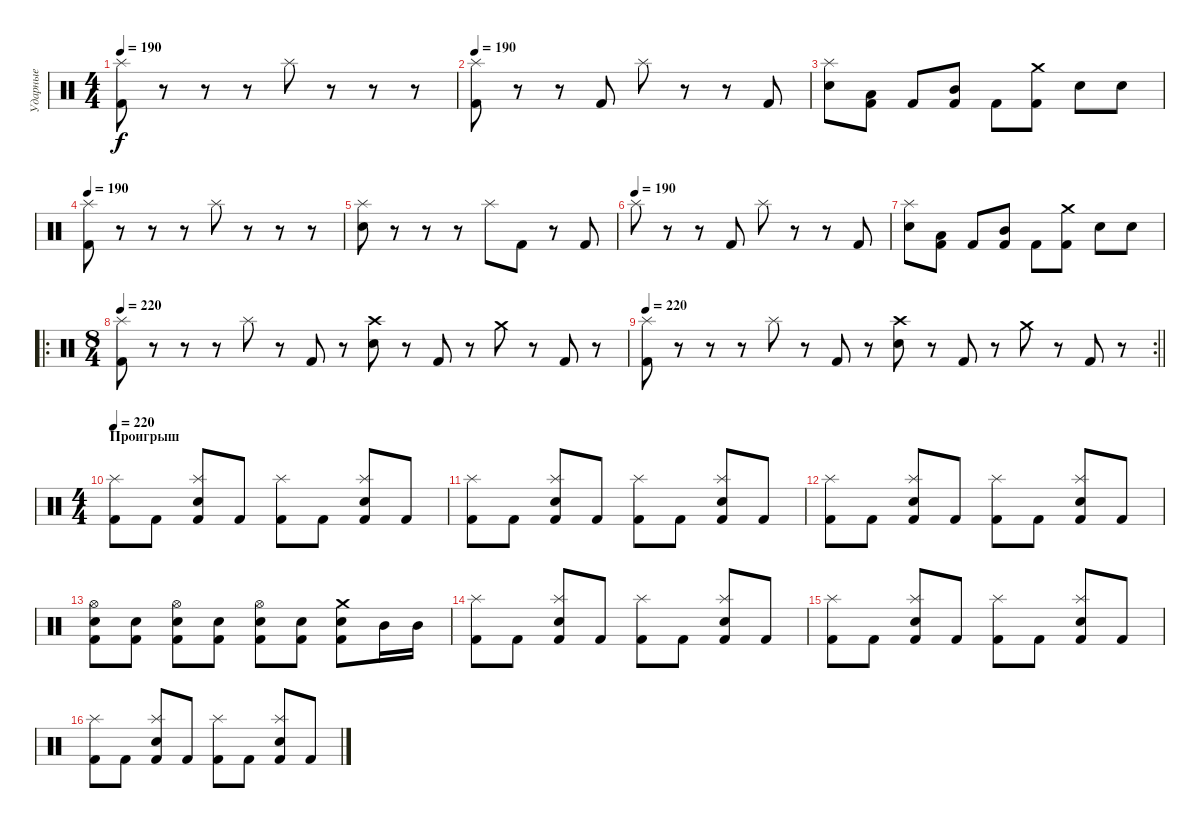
\track ("Ударные" "Ударные") {instrument percussion}
\staff {score}
\articulation defaults
\ts (4 4)
\tempo 190
\clef neutral
\ks c
("Kick (hit) 2" "Splash (hit)").8{dy f} r.8 r.8 r.8 "Splash (hit)".8 r.8 r.8 r.8 |
\tempo 190
("Kick (hit) 2" "Splash (hit)").8 r.8 r.8 "Kick (hit) 2".8 "Splash (hit)".8 r.8 r.8 "Kick (hit) 2".8 |
("Electric Snare (hit)" "Splash (hit)").8 ("Kick (hit) 2" "Low Tom (hit)").8 "Kick (hit) 2".8 ("Kick (hit) 2" "Mid Tom (hit)").8 "Kick (hit) 2".8 ("Kick (hit) 2" "Crash medium (hit)").8 "Electric Snare (hit)".8 "Electric Snare (hit)".8 |
\tempo 190
("Kick (hit) 2" "Splash (hit)").8 r.8 r.8 r.8 "Splash (hit)".8 r.8 r.8 r.8 |
("Electric Snare (hit)" "Splash (hit)").8 r.8 r.8 r.8 "Splash (hit)".8 "Kick (hit) 2".8 r.8 "Kick (hit) 2".8 |
\tempo (190)
"Splash (hit)".8 r.8 r.8 "Kick (hit) 2".8 "Splash (hit)".8 r.8 r.8 "Kick (hit) 2".8 |
("Electric Snare (hit)" "Splash (hit)").8 ("Kick (hit) 2" "Low Tom (hit)").8 "Kick (hit) 2".8 ("Kick (hit) 2" "Mid Tom (hit)").8 "Kick (hit) 2".8 ("Kick (hit) 2" "Crash medium (hit)").8 "Electric Snare (hit)".8 "Electric Snare (hit)".8 |
\ro
\ts (8 4)
\tempo 220
("Kick (hit) 2" "Splash (hit)").8 r.8 r.8 r.8 "Splash (hit)".8 r.8 "Kick (hit) 2".8 r.8 ("Electric Snare (hit)" "Crash high (hit)").8 r.8 "Kick (hit) 2".8 r.8 "Crash medium (hit)".8 r.8 "Kick (hit) 2".8 r.8 |
\rc 2
\tempo 220
\barLineRight lightlight
("Kick (hit) 2" "Splash (hit)").8 r.8 r.8 r.8 "Splash (hit)".8 r.8 "Kick (hit) 2".8 r.8 ("Electric Snare (hit)" "Crash high (hit)").8 r.8 "Kick (hit) 2".8 r.8 "Crash medium (hit)".8 r.8 "Kick (hit) 2".8 r.8 |
\ts (4 4)
\section ("" "Проигрыш")
\tempo 220
("Splash (hit)" "Kick (hit) 2").8 "Kick (hit) 2".8 ("Splash (hit)" "Electric Snare (hit)" "Kick (hit) 2").8 "Kick (hit) 2".8 ("Splash (hit)" "Kick (hit) 2").8 "Kick (hit) 2".8 ("Splash (hit)" "Electric Snare (hit)" "Kick (hit) 2").8 "Kick (hit) 2".8 |
("Splash (hit)" "Kick (hit) 2").8 "Kick (hit) 2".8 ("Splash (hit)" "Electric Snare (hit)" "Kick (hit) 2").8 "Kick (hit) 2".8 ("Splash (hit)" "Kick (hit) 2").8 "Kick (hit) 2".8 ("Splash (hit)" "Electric Snare (hit)" "Kick (hit) 2").8 "Kick (hit) 2".8 |
("Splash (hit)" "Kick (hit) 2").8 "Kick (hit) 2".8 ("Splash (hit)" "Electric Snare (hit)" "Kick (hit) 2").8 "Kick (hit) 2".8 ("Splash (hit)" "Kick (hit) 2").8 "Kick (hit) 2".8 ("Splash (hit)" "Electric Snare (hit)" "Kick (hit) 2").8 "Kick (hit) 2".8 |
("Kick (hit) 2" "Electric Snare (hit)" "Hi-Hat (open)").8 ("Kick (hit) 2" "Electric Snare (hit)").8 ("Kick (hit) 2" "Electric Snare (hit)" "Hi-Hat (open)").8 ("Kick (hit) 2" "Electric Snare (hit)").8 ("Kick (hit) 2" "Electric Snare (hit)" "Hi-Hat (open)").8 ("Kick (hit) 2" "Electric Snare (hit)").8 ("Kick (hit) 2" "Electric Snare (hit)" "Crash medium (hit)").8 "Mid Tom (hit)".16 "Mid Tom (hit)".16 |
("Splash (hit)" "Kick (hit) 2").8 "Kick (hit) 2".8 ("Splash (hit)" "Electric Snare (hit)" "Kick (hit) 2").8 "Kick (hit) 2".8 ("Splash (hit)" "Kick (hit) 2").8 "Kick (hit) 2".8 ("Splash (hit)" "Electric Snare (hit)" "Kick (hit) 2").8 "Kick (hit) 2".8 |
("Splash (hit)" "Kick (hit) 2").8 "Kick (hit) 2".8 ("Splash (hit)" "Electric Snare (hit)" "Kick (hit) 2").8 "Kick (hit) 2".8 ("Splash (hit)" "Kick (hit) 2").8 "Kick (hit) 2".8 ("Splash (hit)" "Electric Snare (hit)" "Kick (hit) 2").8 "Kick (hit) 2".8 |
("Splash (hit)" "Kick (hit) 2").8 "Kick (hit) 2".8 ("Splash (hit)" "Electric Snare (hit)" "Kick (hit) 2").8 "Kick (hit) 2".8 ("Splash (hit)" "Kick (hit) 2").8 "Kick (hit) 2".8 ("Splash (hit)" "Electric Snare (hit)" "Kick (hit) 2").8 "Kick (hit) 2".8
